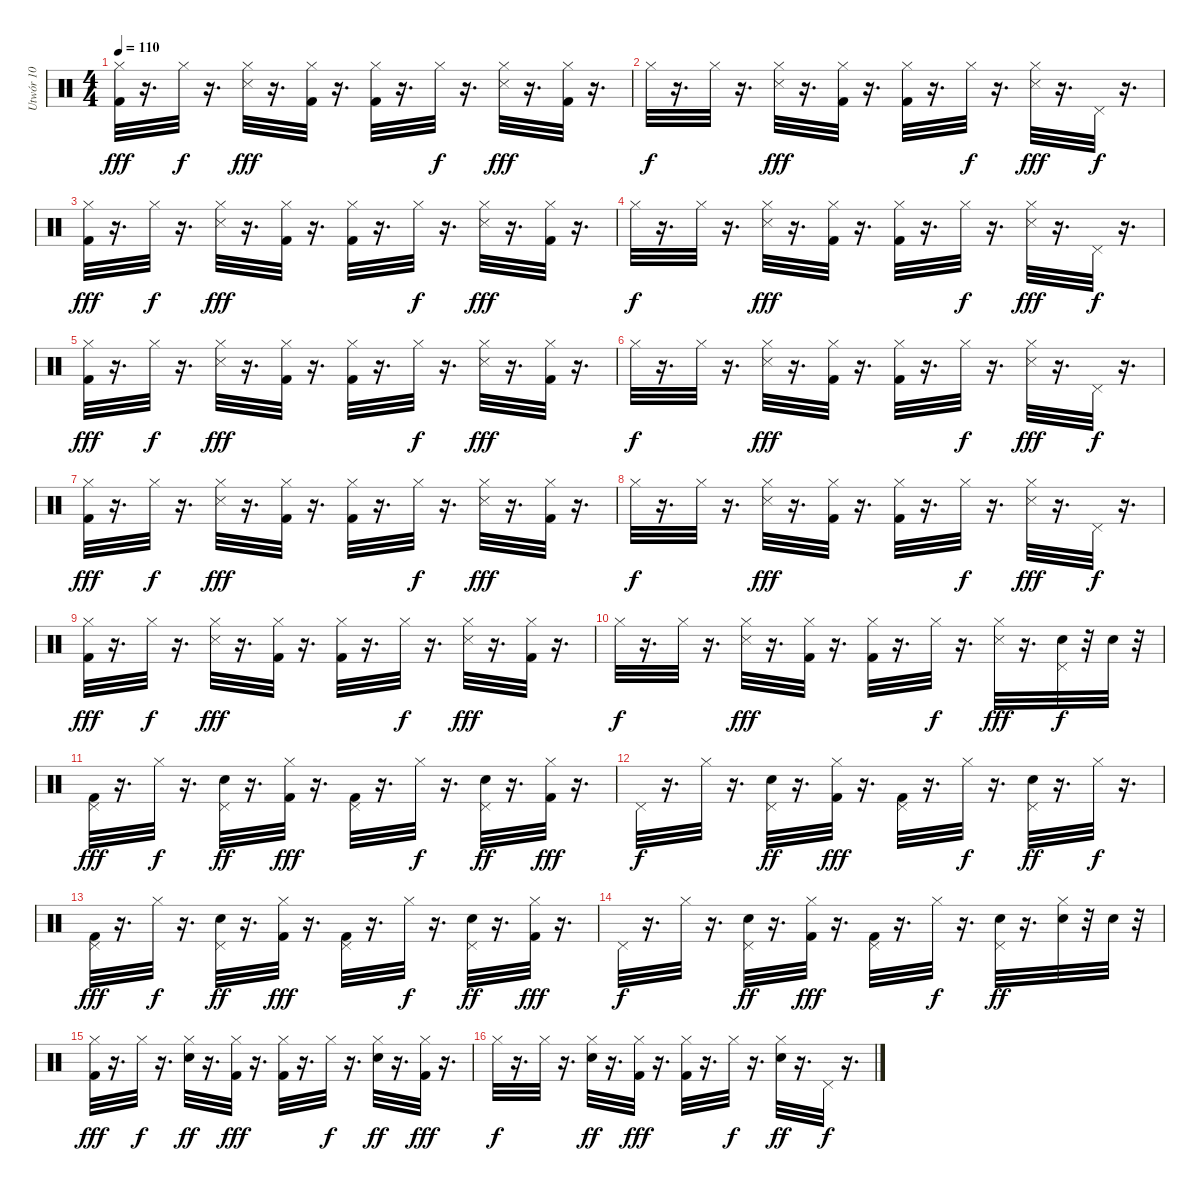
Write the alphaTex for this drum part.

\track ("Utwór 10" "Utwór 10") {instrument percussion}
\staff {score}
\articulation defaults
\ts (4 4)
\tempo 110
\clef neutral
\ks c
("Kick (hit) 2" "Hi-Hat (closed)").32{dy fff} r.16{d} "Hi-Hat (closed)".32{dy f} r.16{d} ("Snare (side stick) 3" "Hi-Hat (closed)").32{dy fff} r.16{d} ("Kick (hit) 2" "Hi-Hat (closed)").32 r.16{d} ("Kick (hit) 2" "Hi-Hat (closed)").32 r.16{d} "Hi-Hat (closed)".32{dy f} r.16{d} ("Snare (side stick) 3" "Hi-Hat (closed)").32{dy fff} r.16{d} ("Kick (hit) 2" "Hi-Hat (closed)").32 r.16{d} |
"Hi-Hat (closed)".32{dy f} r.16{d} "Hi-Hat (closed)".32 r.16{d} ("Snare (side stick) 3" "Hi-Hat (closed)").32{dy fff} r.16{d} ("Kick (hit) 2" "Hi-Hat (closed)").32 r.16{d} ("Kick (hit) 2" "Hi-Hat (closed)").32 r.16{d} "Hi-Hat (closed)".32{dy f} r.16{d} ("Snare (side stick) 3" "Hi-Hat (closed)").32{dy fff} r.16{d} "Pedal Hi-Hat (hit)".32{dy f} r.16{d} |
("Kick (hit) 2" "Hi-Hat (closed)").32{dy fff} r.16{d} "Hi-Hat (closed)".32{dy f} r.16{d} ("Snare (side stick) 3" "Hi-Hat (closed)").32{dy fff} r.16{d} ("Kick (hit) 2" "Hi-Hat (closed)").32 r.16{d} ("Kick (hit) 2" "Hi-Hat (closed)").32 r.16{d} "Hi-Hat (closed)".32{dy f} r.16{d} ("Snare (side stick) 3" "Hi-Hat (closed)").32{dy fff} r.16{d} ("Kick (hit) 2" "Hi-Hat (closed)").32 r.16{d} |
"Hi-Hat (closed)".32{dy f} r.16{d} "Hi-Hat (closed)".32 r.16{d} ("Snare (side stick) 3" "Hi-Hat (closed)").32{dy fff} r.16{d} ("Kick (hit) 2" "Hi-Hat (closed)").32 r.16{d} ("Kick (hit) 2" "Hi-Hat (closed)").32 r.16{d} "Hi-Hat (closed)".32{dy f} r.16{d} ("Snare (side stick) 3" "Hi-Hat (closed)").32{dy fff} r.16{d} "Pedal Hi-Hat (hit)".32{dy f} r.16{d} |
("Kick (hit) 2" "Hi-Hat (closed)").32{dy fff} r.16{d} "Hi-Hat (closed)".32{dy f} r.16{d} ("Snare (side stick) 3" "Hi-Hat (closed)").32{dy fff} r.16{d} ("Kick (hit) 2" "Hi-Hat (closed)").32 r.16{d} ("Kick (hit) 2" "Hi-Hat (closed)").32 r.16{d} "Hi-Hat (closed)".32{dy f} r.16{d} ("Snare (side stick) 3" "Hi-Hat (closed)").32{dy fff} r.16{d} ("Kick (hit) 2" "Hi-Hat (closed)").32 r.16{d} |
"Hi-Hat (closed)".32{dy f} r.16{d} "Hi-Hat (closed)".32 r.16{d} ("Snare (side stick) 3" "Hi-Hat (closed)").32{dy fff} r.16{d} ("Kick (hit) 2" "Hi-Hat (closed)").32 r.16{d} ("Kick (hit) 2" "Hi-Hat (closed)").32 r.16{d} "Hi-Hat (closed)".32{dy f} r.16{d} ("Snare (side stick) 3" "Hi-Hat (closed)").32{dy fff} r.16{d} "Pedal Hi-Hat (hit)".32{dy f} r.16{d} |
("Kick (hit) 2" "Hi-Hat (closed)").32{dy fff} r.16{d} "Hi-Hat (closed)".32{dy f} r.16{d} ("Snare (side stick) 3" "Hi-Hat (closed)").32{dy fff} r.16{d} ("Kick (hit) 2" "Hi-Hat (closed)").32 r.16{d} ("Kick (hit) 2" "Hi-Hat (closed)").32 r.16{d} "Hi-Hat (closed)".32{dy f} r.16{d} ("Snare (side stick) 3" "Hi-Hat (closed)").32{dy fff} r.16{d} ("Kick (hit) 2" "Hi-Hat (closed)").32 r.16{d} |
"Hi-Hat (closed)".32{dy f} r.16{d} "Hi-Hat (closed)".32 r.16{d} ("Snare (side stick) 3" "Hi-Hat (closed)").32{dy fff} r.16{d} ("Kick (hit) 2" "Hi-Hat (closed)").32 r.16{d} ("Kick (hit) 2" "Hi-Hat (closed)").32 r.16{d} "Hi-Hat (closed)".32{dy f} r.16{d} ("Snare (side stick) 3" "Hi-Hat (closed)").32{dy fff} r.16{d} "Pedal Hi-Hat (hit)".32{dy f} r.16{d} |
("Kick (hit) 2" "Hi-Hat (closed)").32{dy fff} r.16{d} "Hi-Hat (closed)".32{dy f} r.16{d} ("Snare (side stick) 3" "Hi-Hat (closed)").32{dy fff} r.16{d} ("Kick (hit) 2" "Hi-Hat (closed)").32 r.16{d} ("Kick (hit) 2" "Hi-Hat (closed)").32 r.16{d} "Hi-Hat (closed)".32{dy f} r.16{d} ("Snare (side stick) 3" "Hi-Hat (closed)").32{dy fff} r.16{d} ("Kick (hit) 2" "Hi-Hat (closed)").32 r.16{d} |
"Hi-Hat (closed)".32{dy f} r.16{d} "Hi-Hat (closed)".32 r.16{d} ("Snare (side stick) 3" "Hi-Hat (closed)").32{dy fff} r.16{d} ("Kick (hit) 2" "Hi-Hat (closed)").32 r.16{d} ("Kick (hit) 2" "Hi-Hat (closed)").32 r.16{d} "Hi-Hat (closed)".32{dy f} r.16{d} ("Snare (side stick) 3" "Hi-Hat (closed)").32{dy fff} r.16{d} ("Snare (hit) 2" "Pedal Hi-Hat (hit)").32{dy f} r.32 "Snare (hit) 2".32 r.32 |
("Kick (hit) 2" "Pedal Hi-Hat (hit)").32{dy fff} r.16{d} "Hi-Hat (closed)".32{dy f} r.16{d} ("Snare (hit) 2" "Pedal Hi-Hat (hit)").32{dy ff} r.16{d} ("Kick (hit) 2" "Hi-Hat (closed)").32{dy fff} r.16{d} ("Kick (hit) 2" "Pedal Hi-Hat (hit)").32 r.16{d} "Hi-Hat (closed)".32{dy f} r.16{d} ("Snare (hit) 2" "Pedal Hi-Hat (hit)").32{dy ff} r.16{d} ("Kick (hit) 2" "Hi-Hat (closed)").32{dy fff} r.16{d} |
"Pedal Hi-Hat (hit)".32{dy f} r.16{d} "Hi-Hat (closed)".32 r.16{d} ("Snare (hit) 2" "Pedal Hi-Hat (hit)").32{dy ff} r.16{d} ("Kick (hit) 2" "Hi-Hat (closed)").32{dy fff} r.16{d} ("Kick (hit) 2" "Pedal Hi-Hat (hit)").32 r.16{d} "Hi-Hat (closed)".32{dy f} r.16{d} ("Snare (hit) 2" "Pedal Hi-Hat (hit)").32{dy ff} r.16{d} "Hi-Hat (closed)".32{dy f} r.16{d} |
("Kick (hit) 2" "Pedal Hi-Hat (hit)").32{dy fff} r.16{d} "Hi-Hat (closed)".32{dy f} r.16{d} ("Snare (hit) 2" "Pedal Hi-Hat (hit)").32{dy ff} r.16{d} ("Kick (hit) 2" "Hi-Hat (closed)").32{dy fff} r.16{d} ("Kick (hit) 2" "Pedal Hi-Hat (hit)").32 r.16{d} "Hi-Hat (closed)".32{dy f} r.16{d} ("Snare (hit) 2" "Pedal Hi-Hat (hit)").32{dy ff} r.16{d} ("Kick (hit) 2" "Hi-Hat (closed)").32{dy fff} r.16{d} |
"Pedal Hi-Hat (hit)".32{dy f} r.16{d} "Hi-Hat (closed)".32 r.16{d} ("Snare (hit) 2" "Pedal Hi-Hat (hit)").32{dy ff} r.16{d} ("Kick (hit) 2" "Hi-Hat (closed)").32{dy fff} r.16{d} ("Kick (hit) 2" "Pedal Hi-Hat (hit)").32 r.16{d} "Hi-Hat (closed)".32{dy f} r.16{d} ("Snare (hit) 2" "Pedal Hi-Hat (hit)").32{dy ff} r.16{d} ("Snare (hit) 2" "Hi-Hat (closed)").32 r.32 "Snare (hit) 2".32 r.32 |
("Kick (hit) 2" "Hi-Hat (closed)").32{dy fff} r.16{d} "Hi-Hat (closed)".32{dy f} r.16{d} ("Snare (hit) 2" "Hi-Hat (closed)").32{dy ff} r.16{d} ("Kick (hit) 2" "Hi-Hat (closed)").32{dy fff} r.16{d} ("Kick (hit) 2" "Hi-Hat (closed)").32 r.16{d} "Hi-Hat (closed)".32{dy f} r.16{d} ("Snare (hit) 2" "Hi-Hat (closed)").32{dy ff} r.16{d} ("Kick (hit) 2" "Hi-Hat (closed)").32{dy fff} r.16{d} |
"Hi-Hat (closed)".32{dy f} r.16{d} "Hi-Hat (closed)".32 r.16{d} ("Snare (hit) 2" "Hi-Hat (closed)").32{dy ff} r.16{d} ("Kick (hit) 2" "Hi-Hat (closed)").32{dy fff} r.16{d} ("Kick (hit) 2" "Hi-Hat (closed)").32 r.16{d} "Hi-Hat (closed)".32{dy f} r.16{d} ("Snare (hit) 2" "Hi-Hat (closed)").32{dy ff} r.16{d} "Pedal Hi-Hat (hit)".32{dy f} r.16{d}
